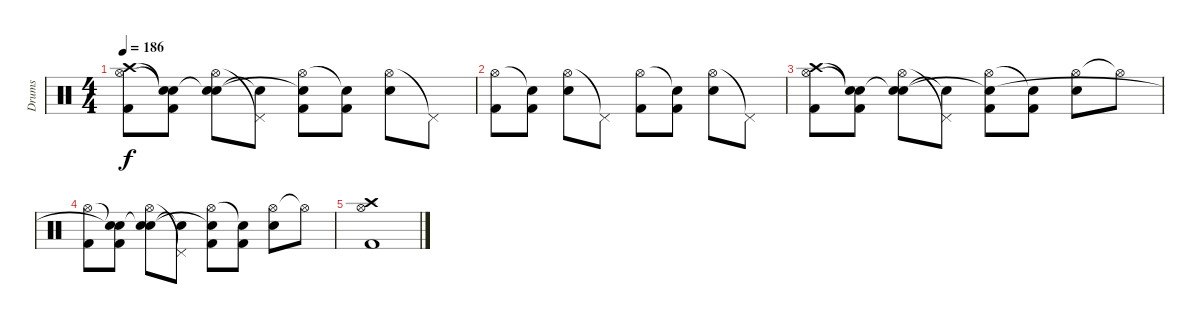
\track ("Drums" "Drums") {instrument percussion}
\staff {score}
\articulation defaults
\ts (4 4)
\tempo 186
\clef neutral
\ks c
("Hi-Hat (open)" "Kick (hit) 2" "Crash high (hit)").8{dy f} ("Snare (hit)"{t} "Kick (hit) 2" "Snare (hit)"{t}).8 ("Hi-Hat (open)" "Electric Snare (hit)" "Snare (hit)"{t}).8 ("Pedal Hi-Hat (hit)"{t} "Snare (hit)"{t}).8 ("Hi-Hat (open)" "Kick (hit) 2" "Snare (hit)"{t}).8 ("Snare (hit)"{t} "Kick (hit) 2").8 ("Hi-Hat (open)" "Electric Snare (hit)").8 "Pedal Hi-Hat (hit)"{t}.8 |
("Hi-Hat (open)" "Kick (hit) 2").8 ("Snare (hit)"{t} "Kick (hit) 2").8 ("Hi-Hat (open)" "Electric Snare (hit)").8 "Pedal Hi-Hat (hit)"{t}.8 ("Hi-Hat (open)" "Kick (hit) 2").8 ("Snare (hit)"{t} "Kick (hit) 2").8 ("Hi-Hat (open)" "Electric Snare (hit)").8 "Pedal Hi-Hat (hit)"{t}.8 |
("Hi-Hat (open)" "Kick (hit) 2" "Crash high (hit)").8 ("Snare (hit)"{t} "Kick (hit) 2" "Snare (hit)"{t}).8 ("Hi-Hat (open)" "Electric Snare (hit)" "Snare (hit)"{t}).8 ("Pedal Hi-Hat (hit)"{t} "Snare (hit)"{t}).8 ("Hi-Hat (open)" "Kick (hit) 2" "Snare (hit)"{t}).8 ("Snare (hit)"{t} "Kick (hit) 2").8 ("Hi-Hat (open)" "Electric Snare (hit)").8 "Hi-Hat (open)"{t}.8 |
("Hi-Hat (open)" "Kick (hit) 2").8 ("Snare (hit)"{t} "Kick (hit) 2" "Snare (hit)"{t}).8 ("Hi-Hat (open)" "Electric Snare (hit)" "Snare (hit)"{t}).8 ("Pedal Hi-Hat (hit)"{t} "Snare (hit)"{t}).8 ("Hi-Hat (open)" "Kick (hit) 2" "Snare (hit)"{t}).8 ("Snare (hit)"{t} "Kick (hit) 2").8 ("Hi-Hat (open)" "Electric Snare (hit)").8 "Hi-Hat (open)"{t}.8 |
("Hi-Hat (open)" "Kick (hit) 2" "Crash high (hit)").1
